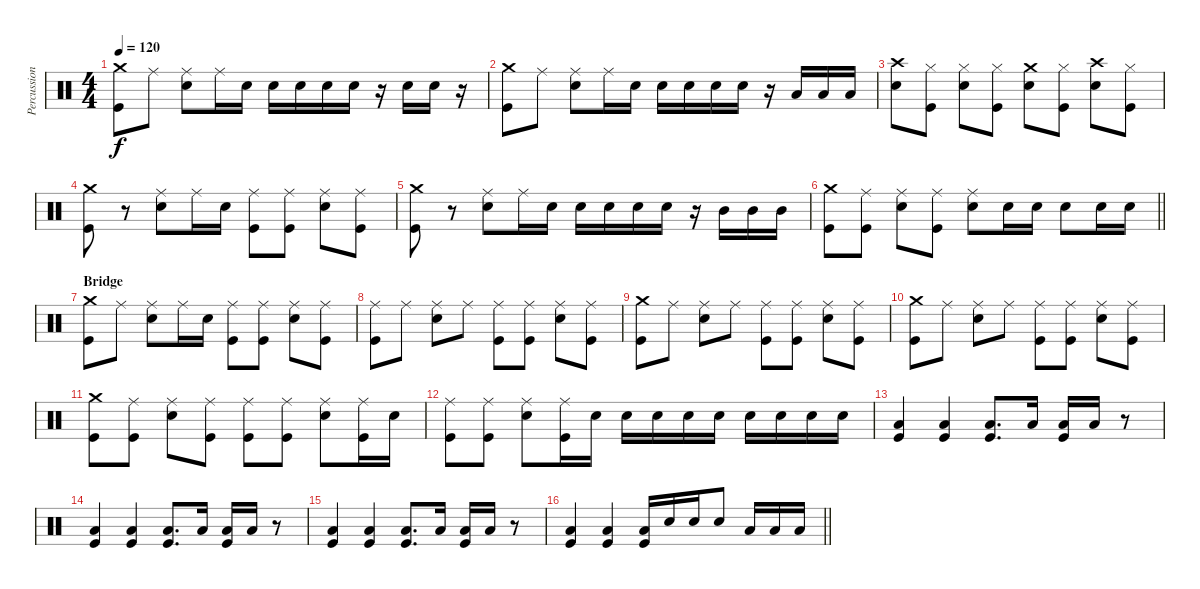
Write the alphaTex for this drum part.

\track ("Percussion" "Percussion") {instrument percussion}
\staff {score}
\articulation defaults
\ts (4 4)
\tempo 120
\clef neutral
\ks c
("Crash medium (hit)" "Kick (hit)").8{dy f} "Ride (middle)".8 ("Ride (middle)" "Snare (hit) 2").8 "Ride (middle)".16 "Snare (hit) 2".16 "Snare (hit) 2".16 "Snare (hit) 2".16 "Snare (hit) 2".16 "Snare (hit) 2".16 r.16 "Snare (hit) 2".16 "Snare (hit) 2".16 r.16 |
("Crash medium (hit)" "Kick (hit)").8 "Ride (middle)".8 ("Ride (middle)" "Snare (hit) 2").8 "Ride (middle)".16 "Snare (hit) 2".16 "Snare (hit) 2".16 "Snare (hit) 2".16 "Snare (hit) 2".16 "Snare (hit) 2".16 r.16 "Low Tom (hit)".16 "Low Tom (hit)".16 "Low Tom (hit)".16 |
("Crash high (hit)" "Snare (hit) 2").8 ("Hi-Hat (closed)" "Kick (hit)").8 ("Hi-Hat (closed)" "Snare (hit) 2").8 ("Hi-Hat (closed)" "Kick (hit)").8 ("Crash medium (hit)" "Snare (hit) 2").8 ("Hi-Hat (closed)" "Kick (hit)").8 ("Crash high (hit)" "Snare (hit) 2").8 ("Hi-Hat (closed)" "Kick (hit)").8 |
("Crash medium (hit)" "Kick (hit)").8 r.8 ("Ride (middle)" "Snare (hit) 2").8 "Ride (middle)".16 "Snare (hit) 2".16 ("Ride (middle)" "Kick (hit)").8 ("Ride (middle)" "Kick (hit)").8 ("Ride (middle)" "Snare (hit) 2").8 ("Ride (middle)" "Kick (hit)").8 |
("Crash medium (hit)" "Kick (hit)").8 r.8 ("Ride (middle)" "Snare (hit) 2").8 "Ride (middle)".16 "Snare (hit) 2".16 "Snare (hit) 2".16 "Snare (hit) 2".16 "Snare (hit) 2".16 "Snare (hit) 2".16 r.16 "Mid Tom (hit)".16 "Mid Tom (hit)".16 "Mid Tom (hit)".16 |
\barLineRight lightlight
("Crash medium (hit)" "Kick (hit)").8 ("Ride (middle)" "Kick (hit)").8 ("Ride (middle)" "Snare (hit) 2").8 ("Ride (middle)" "Kick (hit)").8 ("Ride (middle)" "Snare (hit) 2").8 "Snare (hit) 2".16 "Snare (hit) 2".16 "Snare (hit) 2".8 "Snare (hit) 2".16 "Snare (hit) 2".16 |
\section ("" "Bridge")
("Crash medium (hit)" "Kick (hit)").8 "Ride (middle)".8 ("Ride (middle)" "Snare (hit) 2").8 "Ride (middle)".16 "Snare (hit) 2".16 ("Ride (middle)" "Kick (hit)").8 ("Ride (middle)" "Kick (hit)").8 ("Ride (middle)" "Snare (hit) 2").8 ("Ride (middle)" "Kick (hit)").8 |
("Ride (middle)" "Kick (hit)").8 "Ride (middle)".8 ("Ride (middle)" "Snare (hit) 2").8 "Ride (middle)".8 ("Ride (middle)" "Kick (hit)").8 ("Ride (middle)" "Kick (hit)").8 ("Ride (middle)" "Snare (hit) 2").8 ("Ride (middle)" "Kick (hit)").8 |
("Crash medium (hit)" "Kick (hit)").8 "Ride (middle)".8 ("Ride (middle)" "Snare (hit) 2").8 "Ride (middle)".8 ("Ride (middle)" "Kick (hit)").8 ("Ride (middle)" "Kick (hit)").8 ("Ride (middle)" "Snare (hit) 2").8 ("Ride (middle)" "Kick (hit)").8 |
("Crash medium (hit)" "Kick (hit)").8 "Ride (middle)".8 ("Ride (middle)" "Snare (hit) 2").8 "Ride (middle)".8 ("Ride (middle)" "Kick (hit)").8 ("Ride (middle)" "Kick (hit)").8 ("Ride (middle)" "Snare (hit) 2").8 ("Ride (middle)" "Kick (hit)").8 |
("Crash medium (hit)" "Kick (hit)").8 ("Ride (middle)" "Kick (hit)").8 ("Ride (middle)" "Snare (hit) 2").8 ("Ride (middle)" "Kick (hit)").8 ("Ride (middle)" "Kick (hit)").8 ("Ride (middle)" "Kick (hit)").8 ("Ride (middle)" "Snare (hit) 2").8 ("Ride (middle)" "Kick (hit)").16 "Snare (hit) 2".16 |
("Ride (middle)" "Kick (hit)").8 ("Ride (middle)" "Kick (hit)").8 ("Ride (middle)" "Snare (hit) 2").8 ("Ride (middle)" "Kick (hit)").16 "Snare (hit) 2".16 "Snare (hit) 2".16 "Snare (hit) 2".16 "Snare (hit) 2".16 "Snare (hit) 2".16 "Snare (hit) 2".16 "Snare (hit) 2".16 "Snare (hit) 2".16 "Snare (hit) 2".16 |
("Low Floor Tom (hit)" "Kick (hit)").4 ("Low Floor Tom (hit)" "Kick (hit)").4 ("Low Floor Tom (hit)" "Kick (hit)").8{d} "Low Tom (hit)".16 ("Low Floor Tom (hit)" "Kick (hit)").16 "Low Tom (hit)".16 r.8 |
("Low Floor Tom (hit)" "Kick (hit)").4 ("Low Floor Tom (hit)" "Kick (hit)").4 ("Low Floor Tom (hit)" "Kick (hit)").8{d} "Low Tom (hit)".16 ("Low Floor Tom (hit)" "Kick (hit)").16 "Low Tom (hit)".16 r.8 |
("Low Floor Tom (hit)" "Kick (hit)").4 ("Low Floor Tom (hit)" "Kick (hit)").4 ("Low Floor Tom (hit)" "Kick (hit)").8{d} "Low Tom (hit)".16 ("Low Floor Tom (hit)" "Kick (hit)").16 "Low Tom (hit)".16 r.8 |
\barLineRight lightlight
("Low Floor Tom (hit)" "Kick (hit)").4 ("Low Floor Tom (hit)" "Kick (hit)").4 ("Low Floor Tom (hit)" "Kick (hit)").16 "Snare (hit) 2".16 "Snare (hit) 2".16 "Snare (hit) 2".8 "Low Tom (hit)".16 "Low Tom (hit)".16 "Low Tom (hit)".16
